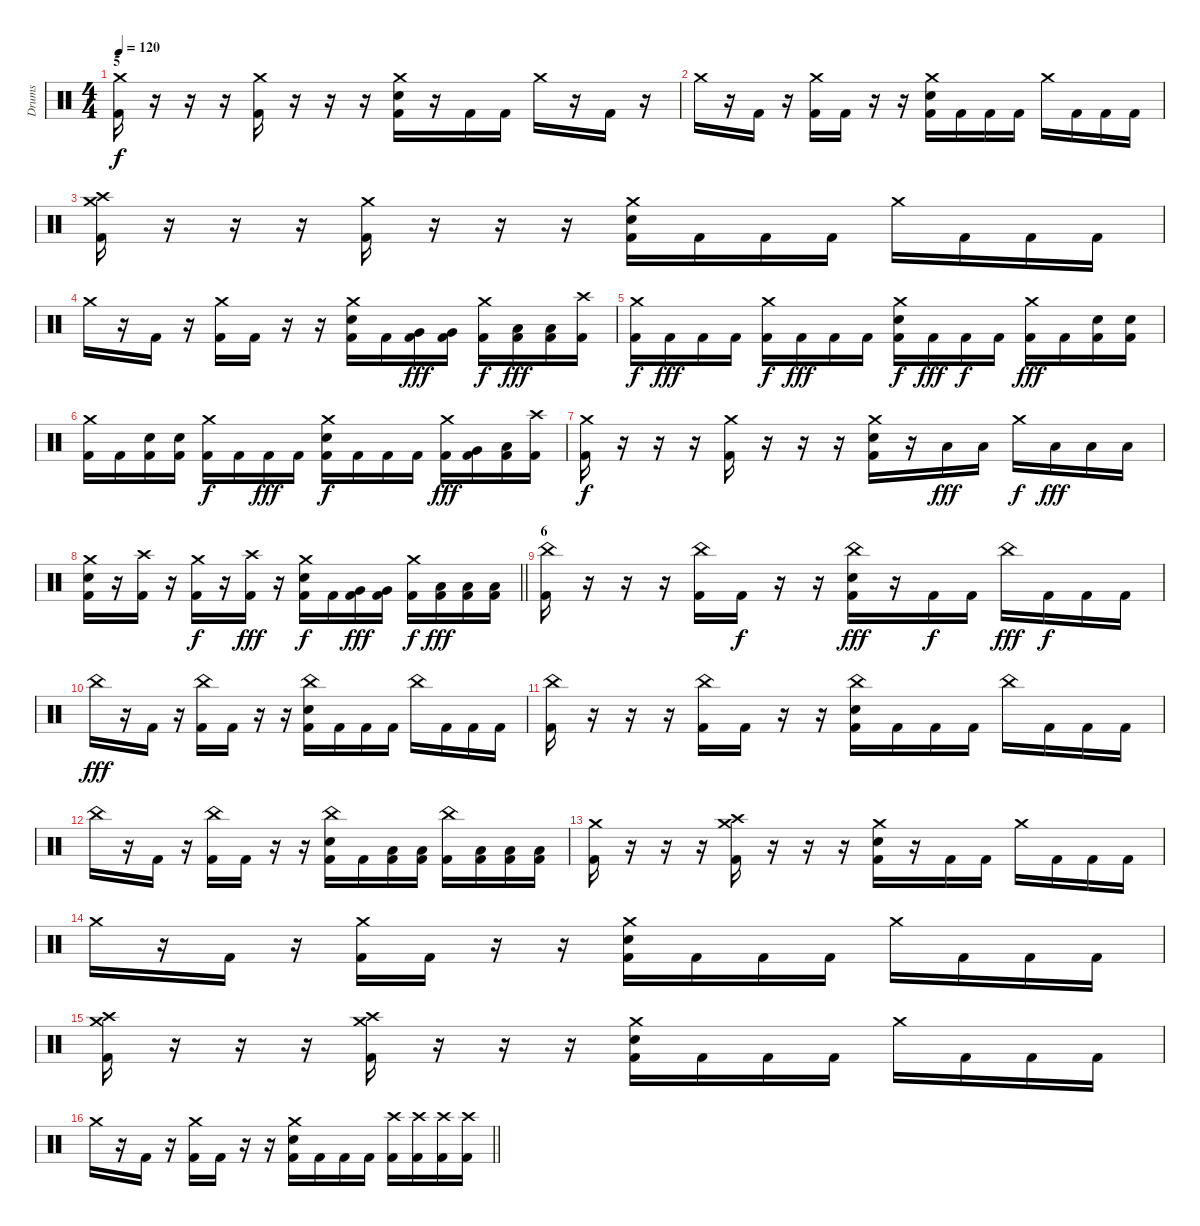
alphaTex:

\track ("Drums" "Drums") {instrument percussion}
\staff {score}
\articulation defaults
\ts (4 4)
\section ("" "5")
\tempo 120
\clef neutral
\ks c
("Crash medium (hit)" "Kick (hit) 2").16{dy f} r.16 r.16 r.16 ("Crash medium (hit)" "Kick (hit) 2").16 r.16 r.16 r.16 ("Crash medium (hit)" "Electric Snare (hit)" "Kick (hit) 2").16 r.16 "Kick (hit) 2".16 "Kick (hit) 2".16 "Crash medium (hit)".16 r.16 "Kick (hit) 2".16 r.16 |
"Crash medium (hit)".16 r.16 "Kick (hit) 2".16 r.16 ("Crash medium (hit)" "Kick (hit) 2").16 "Kick (hit) 2".16 r.16 r.16 ("Crash medium (hit)" "Electric Snare (hit)" "Kick (hit) 2").16 "Kick (hit) 2".16 "Kick (hit) 2".16 "Kick (hit) 2".16 "Crash medium (hit)".16 "Kick (hit) 2".16 "Kick (hit) 2".16 "Kick (hit) 2".16 |
("Crash medium (hit)" "Crash high (hit)" "Kick (hit) 2").16 r.16 r.16 r.16 ("Crash medium (hit)" "Kick (hit) 2").16 r.16 r.16 r.16 ("Crash medium (hit)" "Electric Snare (hit)" "Kick (hit) 2").16 "Kick (hit) 2".16 "Kick (hit) 2".16 "Kick (hit) 2".16 "Crash medium (hit)".16 "Kick (hit) 2".16 "Kick (hit) 2".16 "Kick (hit) 2".16 |
"Crash medium (hit)".16 r.16 "Kick (hit) 2".16 r.16 ("Crash medium (hit)" "Kick (hit) 2").16 "Kick (hit) 2".16 r.16 r.16 ("Crash medium (hit)" "Electric Snare (hit)" "Kick (hit) 2").16 "Kick (hit) 2".16 ("Very Low Tom (hit)" "Kick (hit) 2").16{dy fff} ("Very Low Tom (hit)" "Kick (hit) 2").16 ("Crash medium (hit)" "Kick (hit) 2").16{dy f} ("Low Floor Tom (hit)" "Kick (hit) 2").16{dy fff} ("Low Floor Tom (hit)" "Kick (hit) 2").16 ("Crash high (hit)" "Kick (hit) 2").16 |
("Crash medium (hit)" "Kick (hit) 2").16{dy f} "Kick (hit) 2".16{dy fff} "Kick (hit) 2".16 "Kick (hit) 2".16 ("Crash medium (hit)" "Kick (hit) 2").16{dy f} "Kick (hit) 2".16{dy fff} "Kick (hit) 2".16 "Kick (hit) 2".16 ("Crash medium (hit)" "Electric Snare (hit)" "Kick (hit) 2").16{dy f} "Kick (hit) 2".16{dy fff} "Kick (hit) 2".16{dy f} "Kick (hit) 2".16 ("Crash medium (hit)" "Kick (hit) 2").16{dy fff} "Kick (hit) 2".16 ("Electric Snare (hit)" "Kick (hit) 2").16 ("Electric Snare (hit)" "Kick (hit) 2").16 |
("Crash medium (hit)" "Kick (hit) 2").16 "Kick (hit) 2".16 ("Electric Snare (hit)" "Kick (hit) 2").16 ("Electric Snare (hit)" "Kick (hit) 2").16 ("Crash medium (hit)" "Kick (hit) 2").16{dy f} "Kick (hit) 2".16 "Kick (hit) 2".16{dy fff} "Kick (hit) 2".16 ("Crash medium (hit)" "Electric Snare (hit)" "Kick (hit) 2").16{dy f} "Kick (hit) 2".16 "Kick (hit) 2".16 "Kick (hit) 2".16 ("Crash medium (hit)" "Kick (hit) 2").16{dy fff} ("Very Low Tom (hit)" "Kick (hit) 2").16 ("Low Floor Tom (hit)" "Kick (hit) 2").16 ("Crash high (hit)" "Kick (hit) 2").16 |
("Crash medium (hit)" "Kick (hit) 2").16{dy f} r.16 r.16 r.16 ("Crash medium (hit)" "Kick (hit) 2").16 r.16 r.16 r.16 ("Crash medium (hit)" "Electric Snare (hit)" "Kick (hit) 2").16 r.16 "Low Floor Tom (hit)".16{dy fff} "Low Floor Tom (hit)".16 "Crash medium (hit)".16{dy f} "Low Floor Tom (hit)".16{dy fff} "Low Floor Tom (hit)".16 "Low Floor Tom (hit)".16 |
\barLineRight lightlight
("Crash medium (hit)" "Electric Snare (hit)" "Kick (hit) 2").16 r.16 ("Crash high (hit)" "Kick (hit) 2").16 r.16 ("Crash medium (hit)" "Kick (hit) 2").16{dy f} r.16 ("Crash high (hit)" "Kick (hit) 2").16{dy fff} r.16 ("Crash medium (hit)" "Electric Snare (hit)" "Kick (hit) 2").16{dy f} "Kick (hit) 2".16 ("Very Low Tom (hit)" "Kick (hit) 2").16{dy fff} ("Very Low Tom (hit)" "Kick (hit) 2").16 ("Crash medium (hit)" "Kick (hit) 2").16{dy f} ("Low Floor Tom (hit)" "Kick (hit) 2").16{dy fff} ("Low Floor Tom (hit)" "Kick (hit) 2").16 ("Low Floor Tom (hit)" "Kick (hit) 2").16 |
\section ("" "6")
("China (hit)" "Kick (hit) 2").16 r.16 r.16 r.16 ("China (hit)" "Kick (hit) 2").16 "Kick (hit) 2".16{dy f} r.16 r.16 ("China (hit)" "Electric Snare (hit)" "Kick (hit) 2").16{dy fff} r.16 "Kick (hit) 2".16{dy f} "Kick (hit) 2".16 "China (hit)".16{dy fff} "Kick (hit) 2".16{dy f} "Kick (hit) 2".16 "Kick (hit) 2".16 |
"China (hit)".16{dy fff} r.16 "Kick (hit) 2".16 r.16 ("China (hit)" "Kick (hit) 2").16 "Kick (hit) 2".16 r.16 r.16 ("China (hit)" "Electric Snare (hit)" "Kick (hit) 2").16 "Kick (hit) 2".16 "Kick (hit) 2".16 "Kick (hit) 2".16 "China (hit)".16 "Kick (hit) 2".16 "Kick (hit) 2".16 "Kick (hit) 2".16 |
("China (hit)" "Kick (hit) 2").16 r.16 r.16 r.16 ("China (hit)" "Kick (hit) 2").16 "Kick (hit) 2".16 r.16 r.16 ("China (hit)" "Electric Snare (hit)" "Kick (hit) 2").16 "Kick (hit) 2".16 "Kick (hit) 2".16 "Kick (hit) 2".16 "China (hit)".16 "Kick (hit) 2".16 "Kick (hit) 2".16 "Kick (hit) 2".16 |
"China (hit)".16 r.16 "Kick (hit) 2".16 r.16 ("China (hit)" "Kick (hit) 2").16 "Kick (hit) 2".16 r.16 r.16 ("China (hit)" "Electric Snare (hit)" "Kick (hit) 2").16 "Kick (hit) 2".16 ("Low Floor Tom (hit)" "Kick (hit) 2").16 ("Low Floor Tom (hit)" "Kick (hit) 2").16 ("China (hit)" "Kick (hit) 2").16 ("Low Floor Tom (hit)" "Kick (hit) 2").16 ("Low Floor Tom (hit)" "Kick (hit) 2").16 ("Low Floor Tom (hit)" "Kick (hit) 2").16 |
("Crash medium (hit)" "Kick (hit) 2").16 r.16 r.16 r.16 ("Crash medium (hit)" "Crash high (hit)" "Kick (hit) 2").16 r.16 r.16 r.16 ("Crash medium (hit)" "Electric Snare (hit)" "Kick (hit) 2").16 r.16 "Kick (hit) 2".16 "Kick (hit) 2".16 "Crash medium (hit)".16 "Kick (hit) 2".16 "Kick (hit) 2".16 "Kick (hit) 2".16 |
"Crash medium (hit)".16 r.16 "Kick (hit) 2".16 r.16 ("Crash medium (hit)" "Kick (hit) 2").16 "Kick (hit) 2".16 r.16 r.16 ("Crash medium (hit)" "Electric Snare (hit)" "Kick (hit) 2").16 "Kick (hit) 2".16 "Kick (hit) 2".16 "Kick (hit) 2".16 "Crash medium (hit)".16 "Kick (hit) 2".16 "Kick (hit) 2".16 "Kick (hit) 2".16 |
("Crash medium (hit)" "Crash high (hit)" "Kick (hit) 2").16 r.16 r.16 r.16 ("Crash medium (hit)" "Crash high (hit)" "Kick (hit) 2").16 r.16 r.16 r.16 ("Crash medium (hit)" "Electric Snare (hit)" "Kick (hit) 2").16 "Kick (hit) 2".16 "Kick (hit) 2".16 "Kick (hit) 2".16 "Crash medium (hit)".16 "Kick (hit) 2".16 "Kick (hit) 2".16 "Kick (hit) 2".16 |
\barLineRight lightlight "Crash medium (hit)".16
r.16 "Kick (hit) 2".16 r.16 ("Crash medium (hit)" "Kick (hit) 2").16 "Kick (hit) 2".16 r.16 r.16 ("Crash medium (hit)" "Electric Snare (hit)" "Kick (hit) 2").16 "Kick (hit) 2".16 "Kick (hit) 2".16 "Kick (hit) 2".16 ("Crash high (hit)" "Kick (hit) 2").16 ("Crash high (hit)" "Kick (hit) 2").16 ("Crash high (hit)" "Kick (hit) 2").16 ("Crash high (hit)" "Kick (hit) 2").16
